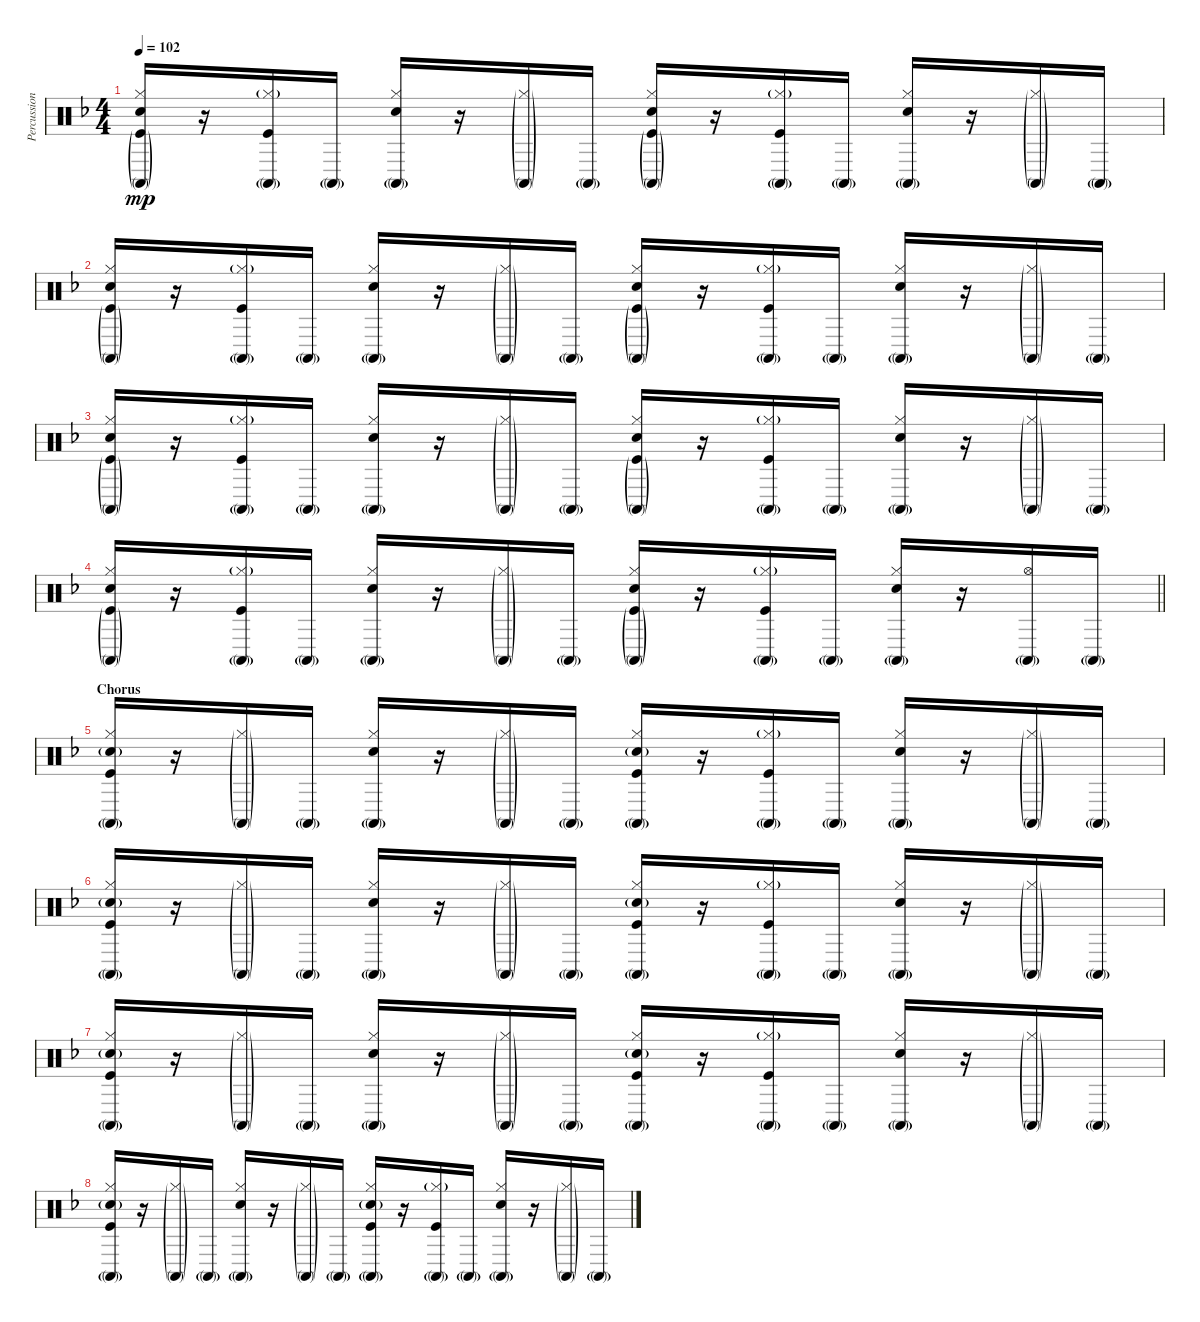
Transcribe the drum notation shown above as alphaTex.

\track ("Percussion" "Percussion") {instrument percussion bank 255}
\staff {score}
\articulation defaults
\ts (4 4)
\tempo 102
\clef neutral
\ks f
("Conga high (mute)"{g} "Hi-Hat (closed)" "Snare (hit) 2" "Kick (hit)"{g}).16{dy mp} r.16 ("Conga high (mute)"{g} "Hi-Hat (closed)"{g} "Kick (hit)").16 "Conga high (mute)"{g}.16 ("Conga high (mute)"{g} "Hi-Hat (closed)" "Snare (hit) 2").16 r.16 ("Conga high (mute)"{g} "Hi-Hat (closed)"{g}).16 "Conga high (mute)"{g}.16 ("Conga high (mute)"{g} "Hi-Hat (closed)" "Snare (hit) 2" "Kick (hit)"{g}).16 r.16 ("Conga high (mute)"{g} "Hi-Hat (closed)"{g} "Kick (hit)").16 "Conga high (mute)"{g}.16 ("Conga high (mute)"{g} "Hi-Hat (closed)" "Snare (hit) 2").16 r.16 ("Conga high (mute)"{g} "Hi-Hat (closed)"{g}).16 "Conga high (mute)"{g}.16 |
("Conga high (mute)"{g} "Hi-Hat (closed)" "Snare (hit) 2" "Kick (hit)"{g}).16 r.16 ("Conga high (mute)"{g} "Hi-Hat (closed)"{g} "Kick (hit)").16 "Conga high (mute)"{g}.16 ("Conga high (mute)"{g} "Hi-Hat (closed)" "Snare (hit) 2").16 r.16 ("Conga high (mute)"{g} "Hi-Hat (closed)"{g}).16 "Conga high (mute)"{g}.16 ("Conga high (mute)"{g} "Hi-Hat (closed)" "Snare (hit) 2" "Kick (hit)"{g}).16 r.16 ("Conga high (mute)"{g} "Hi-Hat (closed)"{g} "Kick (hit)").16 "Conga high (mute)"{g}.16 ("Conga high (mute)"{g} "Hi-Hat (closed)" "Snare (hit) 2").16 r.16 ("Conga high (mute)"{g} "Hi-Hat (closed)"{g}).16 "Conga high (mute)"{g}.16 |
("Conga high (mute)"{g} "Hi-Hat (closed)" "Snare (hit) 2" "Kick (hit)"{g}).16 r.16 ("Conga high (mute)"{g} "Hi-Hat (closed)"{g} "Kick (hit)").16 "Conga high (mute)"{g}.16 ("Conga high (mute)"{g} "Hi-Hat (closed)" "Snare (hit) 2").16 r.16 ("Conga high (mute)"{g} "Hi-Hat (closed)"{g}).16 "Conga high (mute)"{g}.16 ("Conga high (mute)"{g} "Hi-Hat (closed)" "Snare (hit) 2" "Kick (hit)"{g}).16 r.16 ("Conga high (mute)"{g} "Hi-Hat (closed)"{g} "Kick (hit)").16 "Conga high (mute)"{g}.16 ("Conga high (mute)"{g} "Hi-Hat (closed)" "Snare (hit) 2").16 r.16 ("Conga high (mute)"{g} "Hi-Hat (closed)"{g}).16 "Conga high (mute)"{g}.16 |
\barLineRight lightlight
("Conga high (mute)"{g} "Hi-Hat (closed)" "Snare (hit) 2" "Kick (hit)"{g}).16 r.16 ("Conga high (mute)"{g} "Hi-Hat (closed)"{g} "Kick (hit)").16 "Conga high (mute)"{g}.16 ("Conga high (mute)"{g} "Hi-Hat (closed)" "Snare (hit) 2").16 r.16 ("Conga high (mute)"{g} "Hi-Hat (closed)"{g}).16 "Conga high (mute)"{g}.16 ("Conga high (mute)"{g} "Hi-Hat (closed)" "Snare (hit) 2" "Kick (hit)"{g}).16 r.16 ("Conga high (mute)"{g} "Hi-Hat (closed)"{g} "Kick (hit)").16 "Conga high (mute)"{g}.16 ("Conga high (mute)"{g} "Hi-Hat (closed)" "Snare (hit) 2").16 r.16 ("Conga high (mute)"{g} "Hi-Hat (open)").16 "Conga high (mute)"{g}.16 |
\section ("" "Chorus")
("Conga high (mute)"{g} "Hi-Hat (closed)" "Snare (hit) 2"{g} "Kick (hit)").16 r.16 ("Conga high (mute)"{g} "Hi-Hat (closed)"{g}).16 "Conga high (mute)"{g}.16 ("Conga high (mute)"{g} "Hi-Hat (closed)" "Snare (hit) 2").16 r.16 ("Conga high (mute)"{g} "Hi-Hat (closed)"{g}).16 "Conga high (mute)"{g}.16 ("Conga high (mute)"{g} "Hi-Hat (closed)" "Snare (hit) 2"{g} "Kick (hit)").16 r.16 ("Conga high (mute)"{g} "Hi-Hat (closed)"{g} "Kick (hit)").16 "Conga high (mute)"{g}.16 ("Conga high (mute)"{g} "Hi-Hat (closed)" "Snare (hit) 2").16 r.16 ("Conga high (mute)"{g} "Hi-Hat (closed)"{g}).16 "Conga high (mute)"{g}.16 |
("Conga high (mute)"{g} "Hi-Hat (closed)" "Snare (hit) 2"{g} "Kick (hit)").16 r.16 ("Conga high (mute)"{g} "Hi-Hat (closed)"{g}).16 "Conga high (mute)"{g}.16 ("Conga high (mute)"{g} "Hi-Hat (closed)" "Snare (hit) 2").16 r.16 ("Conga high (mute)"{g} "Hi-Hat (closed)"{g}).16 "Conga high (mute)"{g}.16 ("Conga high (mute)"{g} "Hi-Hat (closed)" "Snare (hit) 2"{g} "Kick (hit)").16 r.16 ("Conga high (mute)"{g} "Hi-Hat (closed)"{g} "Kick (hit)").16 "Conga high (mute)"{g}.16 ("Conga high (mute)"{g} "Hi-Hat (closed)" "Snare (hit) 2").16 r.16 ("Conga high (mute)"{g} "Hi-Hat (closed)"{g}).16 "Conga high (mute)"{g}.16 |
("Conga high (mute)"{g} "Hi-Hat (closed)" "Snare (hit) 2"{g} "Kick (hit)").16 r.16 ("Conga high (mute)"{g} "Hi-Hat (closed)"{g}).16 "Conga high (mute)"{g}.16 ("Conga high (mute)"{g} "Hi-Hat (closed)" "Snare (hit) 2").16 r.16 ("Conga high (mute)"{g} "Hi-Hat (closed)"{g}).16 "Conga high (mute)"{g}.16 ("Conga high (mute)"{g} "Hi-Hat (closed)" "Snare (hit) 2"{g} "Kick (hit)").16 r.16 ("Conga high (mute)"{g} "Hi-Hat (closed)"{g} "Kick (hit)").16 "Conga high (mute)"{g}.16 ("Conga high (mute)"{g} "Hi-Hat (closed)" "Snare (hit) 2").16 r.16 ("Conga high (mute)"{g} "Hi-Hat (closed)"{g}).16 "Conga high (mute)"{g}.16 |
("Conga high (mute)"{g} "Hi-Hat (closed)" "Snare (hit) 2"{g} "Kick (hit)").16 r.16 ("Conga high (mute)"{g} "Hi-Hat (closed)"{g}).16 "Conga high (mute)"{g}.16 ("Conga high (mute)"{g} "Hi-Hat (closed)" "Snare (hit) 2").16 r.16 ("Conga high (mute)"{g} "Hi-Hat (closed)"{g}).16 "Conga high (mute)"{g}.16 ("Conga high (mute)"{g} "Hi-Hat (closed)" "Snare (hit) 2"{g} "Kick (hit)").16 r.16 ("Conga high (mute)"{g} "Hi-Hat (closed)"{g} "Kick (hit)").16 "Conga high (mute)"{g}.16 ("Conga high (mute)"{g} "Hi-Hat (closed)" "Snare (hit) 2").16 r.16 ("Conga high (mute)"{g} "Hi-Hat (closed)"{g}).16 "Conga high (mute)"{g}.16
